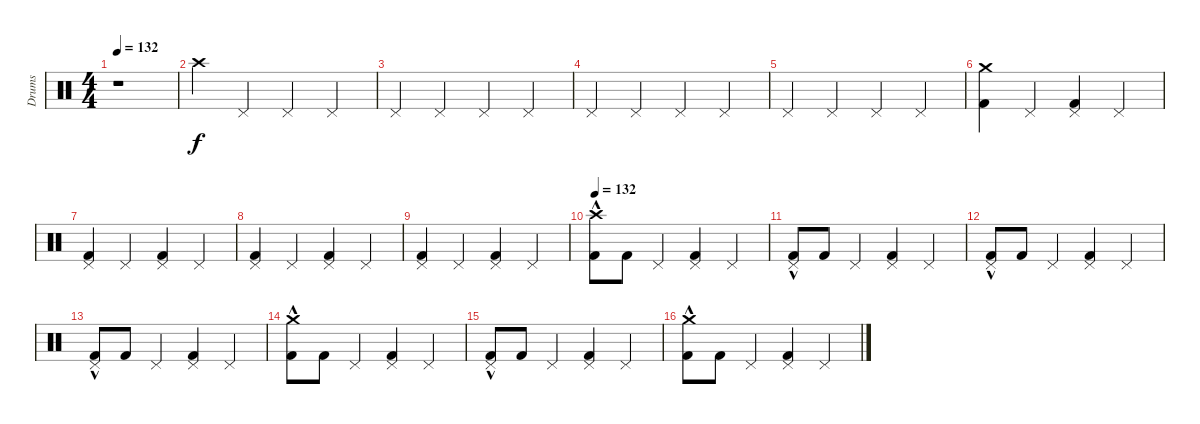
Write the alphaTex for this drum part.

\track ("Drums" "Drums") {instrument percussion}
\staff {score}
\articulation defaults
\ts (4 4)
\tempo 132
\clef neutral
\ks c
r.1{dy f} |
"Crash high (hit)".4 "Pedal Hi-Hat (hit)".4 "Pedal Hi-Hat (hit)".4 "Pedal Hi-Hat (hit)".4 |
"Pedal Hi-Hat (hit)".4 "Pedal Hi-Hat (hit)".4 "Pedal Hi-Hat (hit)".4 "Pedal Hi-Hat (hit)".4 |
"Pedal Hi-Hat (hit)".4 "Pedal Hi-Hat (hit)".4 "Pedal Hi-Hat (hit)".4 "Pedal Hi-Hat (hit)".4 |
"Pedal Hi-Hat (hit)".4 "Pedal Hi-Hat (hit)".4 "Pedal Hi-Hat (hit)".4 "Pedal Hi-Hat (hit)".4 |
("Crash medium (hit)" "Kick (hit) 2").4 "Pedal Hi-Hat (hit)".4 ("Pedal Hi-Hat (hit)" "Kick (hit) 2").4 "Pedal Hi-Hat (hit)".4 |
("Pedal Hi-Hat (hit)" "Kick (hit) 2").4 "Pedal Hi-Hat (hit)".4 ("Pedal Hi-Hat (hit)" "Kick (hit) 2").4 "Pedal Hi-Hat (hit)".4 |
("Pedal Hi-Hat (hit)" "Kick (hit) 2").4 "Pedal Hi-Hat (hit)".4 ("Pedal Hi-Hat (hit)" "Kick (hit) 2").4 "Pedal Hi-Hat (hit)".4 |
("Pedal Hi-Hat (hit)" "Kick (hit) 2").4 "Pedal Hi-Hat (hit)".4 ("Pedal Hi-Hat (hit)" "Kick (hit) 2").4 "Pedal Hi-Hat (hit)".4 |
\tempo 132
("Crash high (hit)" "Kick (hit) 2"{hac}).8 "Kick (hit) 2".8 "Pedal Hi-Hat (hit)".4 ("Pedal Hi-Hat (hit)" "Kick (hit) 2").4 "Pedal Hi-Hat (hit)".4 |
("Pedal Hi-Hat (hit)" "Kick (hit) 2"{hac}).8 "Kick (hit) 2".8 "Pedal Hi-Hat (hit)".4 ("Pedal Hi-Hat (hit)" "Kick (hit) 2").4 "Pedal Hi-Hat (hit)".4 |
("Pedal Hi-Hat (hit)" "Kick (hit) 2"{hac}).8 "Kick (hit) 2".8 "Pedal Hi-Hat (hit)".4 ("Pedal Hi-Hat (hit)" "Kick (hit) 2").4 "Pedal Hi-Hat (hit)".4 |
("Pedal Hi-Hat (hit)" "Kick (hit) 2"{hac}).8 "Kick (hit) 2".8 "Pedal Hi-Hat (hit)".4 ("Pedal Hi-Hat (hit)" "Kick (hit) 2").4 "Pedal Hi-Hat (hit)".4 |
("Crash medium (hit)" "Kick (hit) 2"{hac}).8 "Kick (hit) 2".8 "Pedal Hi-Hat (hit)".4 ("Pedal Hi-Hat (hit)" "Kick (hit) 2").4 "Pedal Hi-Hat (hit)".4 |
("Pedal Hi-Hat (hit)" "Kick (hit) 2"{hac}).8 "Kick (hit) 2".8 "Pedal Hi-Hat (hit)".4 ("Pedal Hi-Hat (hit)" "Kick (hit) 2").4 "Pedal Hi-Hat (hit)".4 |
("Crash medium (hit)" "Kick (hit) 2"{hac}).8 "Kick (hit) 2".8 "Pedal Hi-Hat (hit)".4 ("Pedal Hi-Hat (hit)" "Kick (hit) 2").4 "Pedal Hi-Hat (hit)".4
